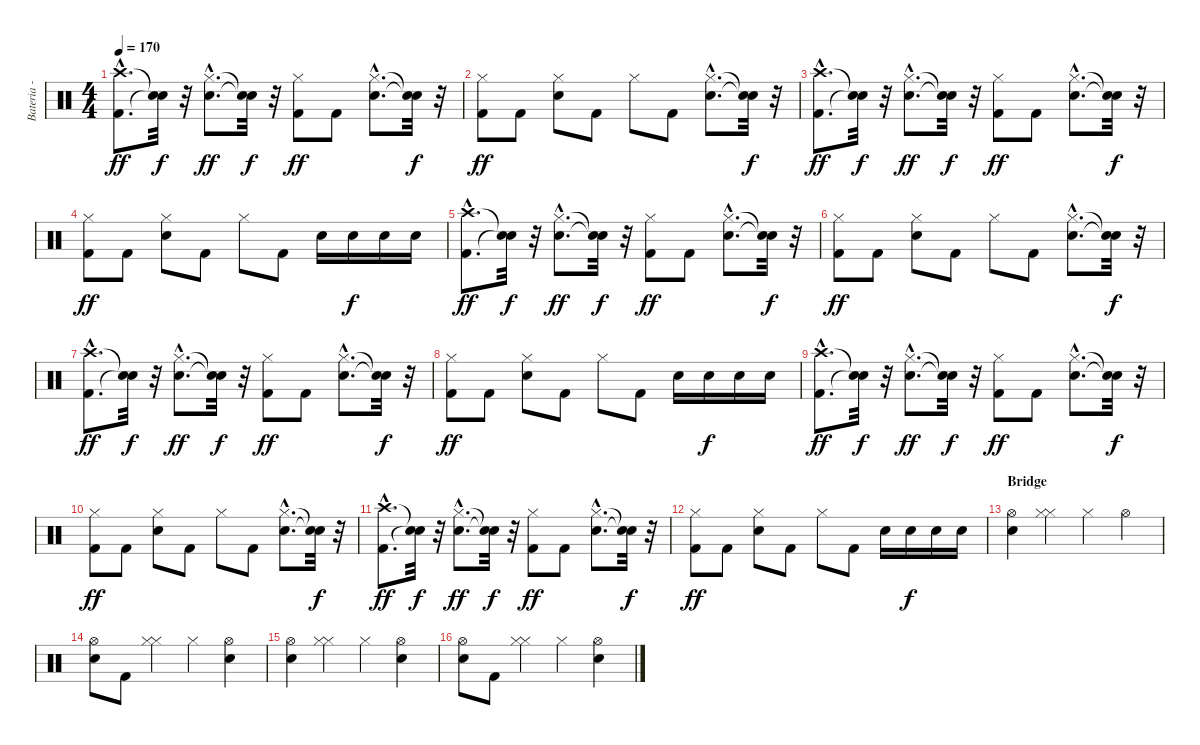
\track ("Bateria - Larzon" "Bateria - ") {instrument percussion}
\staff {score}
\articulation defaults
\ts (4 4)
\tempo 170
\clef neutral
\ks c
("Kick (hit) 2"{hac} "Crash high (hit)"{hac}).8{d dy ff} ("Snare (hit)"{t} "Snare (hit)"{t}).32{dy f} r.32 ("Electric Snare (hit)"{hac} "Hi-Hat (closed)"{hac}).8{d dy ff} ("Snare (hit)"{t} "Snare (hit)"{t}).32{dy f} r.32 ("Kick (hit) 2" "Hi-Hat (closed)").8{dy ff} "Kick (hit) 2".8 ("Electric Snare (hit)"{hac} "Hi-Hat (closed)"{hac}).8{d} ("Snare (hit)"{t} "Snare (hit)"{t}).32{dy f} r.32 |
("Kick (hit) 2" "Hi-Hat (closed)").8{dy ff} "Kick (hit) 2".8 ("Electric Snare (hit)" "Hi-Hat (closed)").8 "Kick (hit) 2".8 "Hi-Hat (closed)".8 "Kick (hit) 2".8 ("Electric Snare (hit)"{hac} "Hi-Hat (closed)"{hac}).8{d} ("Snare (hit)"{t} "Snare (hit)"{t}).32{dy f} r.32 |
("Kick (hit) 2"{hac} "Crash high (hit)"{hac}).8{d dy ff} ("Snare (hit)"{t} "Snare (hit)"{t}).32{dy f} r.32 ("Electric Snare (hit)"{hac} "Hi-Hat (closed)"{hac}).8{d dy ff} ("Snare (hit)"{t} "Snare (hit)"{t}).32{dy f} r.32 ("Kick (hit) 2" "Hi-Hat (closed)").8{dy ff} "Kick (hit) 2".8 ("Electric Snare (hit)"{hac} "Hi-Hat (closed)"{hac}).8{d} ("Snare (hit)"{t} "Snare (hit)"{t}).32{dy f} r.32 |
("Kick (hit) 2" "Hi-Hat (closed)").8{dy ff} "Kick (hit) 2".8 ("Electric Snare (hit)" "Hi-Hat (closed)").8 "Kick (hit) 2".8 "Hi-Hat (closed)".8 "Kick (hit) 2".8 "Snare (hit) 2".16 "Snare (hit) 2".16{dy f} "Snare (hit) 2".16 "Snare (hit) 2".16 |
("Kick (hit) 2"{hac} "Crash high (hit)"{hac}).8{d dy ff} ("Snare (hit)"{t} "Snare (hit)"{t}).32{dy f} r.32 ("Electric Snare (hit)"{hac} "Hi-Hat (closed)"{hac}).8{d dy ff} ("Snare (hit)"{t} "Snare (hit)"{t}).32{dy f} r.32 ("Kick (hit) 2" "Hi-Hat (closed)").8{dy ff} "Kick (hit) 2".8 ("Electric Snare (hit)"{hac} "Hi-Hat (closed)"{hac}).8{d} ("Snare (hit)"{t} "Snare (hit)"{t}).32{dy f} r.32 |
("Kick (hit) 2" "Hi-Hat (closed)").8{dy ff} "Kick (hit) 2".8 ("Electric Snare (hit)" "Hi-Hat (closed)").8 "Kick (hit) 2".8 "Hi-Hat (closed)".8 "Kick (hit) 2".8 ("Electric Snare (hit)"{hac} "Hi-Hat (closed)"{hac}).8{d} ("Snare (hit)"{t} "Snare (hit)"{t}).32{dy f} r.32 |
("Kick (hit) 2"{hac} "Crash high (hit)"{hac}).8{d dy ff} ("Snare (hit)"{t} "Snare (hit)"{t}).32{dy f} r.32 ("Electric Snare (hit)"{hac} "Hi-Hat (closed)"{hac}).8{d dy ff} ("Snare (hit)"{t} "Snare (hit)"{t}).32{dy f} r.32 ("Kick (hit) 2" "Hi-Hat (closed)").8{dy ff} "Kick (hit) 2".8 ("Electric Snare (hit)"{hac} "Hi-Hat (closed)"{hac}).8{d} ("Snare (hit)"{t} "Snare (hit)"{t}).32{dy f} r.32 |
("Kick (hit) 2" "Hi-Hat (closed)").8{dy ff} "Kick (hit) 2".8 ("Electric Snare (hit)" "Hi-Hat (closed)").8 "Kick (hit) 2".8 "Hi-Hat (closed)".8 "Kick (hit) 2".8 "Electric Snare (hit)".16 "Electric Snare (hit)".16{dy f} "Electric Snare (hit)".16 "Electric Snare (hit)".16 |
("Kick (hit) 2"{hac} "Crash high (hit)"{hac}).8{d dy ff} ("Snare (hit)"{t} "Snare (hit)"{t}).32{dy f} r.32 ("Electric Snare (hit)"{hac} "Hi-Hat (closed)"{hac}).8{d dy ff} ("Snare (hit)"{t} "Snare (hit)"{t}).32{dy f} r.32 ("Kick (hit) 2" "Hi-Hat (closed)").8{dy ff} "Kick (hit) 2".8 ("Electric Snare (hit)"{hac} "Hi-Hat (closed)"{hac}).8{d} ("Snare (hit)"{t} "Snare (hit)"{t}).32{dy f} r.32 |
("Kick (hit) 2" "Hi-Hat (closed)").8{dy ff} "Kick (hit) 2".8 ("Electric Snare (hit)" "Hi-Hat (closed)").8 "Kick (hit) 2".8 "Hi-Hat (closed)".8 "Kick (hit) 2".8 ("Electric Snare (hit)"{hac} "Hi-Hat (closed)"{hac}).8{d} ("Snare (hit)"{t} "Snare (hit)"{t}).32{dy f} r.32 |
("Kick (hit) 2"{hac} "Crash high (hit)"{hac}).8{d dy ff} ("Snare (hit)"{t} "Snare (hit)"{t}).32{dy f} r.32 ("Electric Snare (hit)"{hac} "Hi-Hat (closed)"{hac}).8{d dy ff} ("Snare (hit)"{t} "Snare (hit)"{t}).32{dy f} r.32 ("Kick (hit) 2" "Hi-Hat (closed)").8{dy ff} "Kick (hit) 2".8 ("Electric Snare (hit)"{hac} "Hi-Hat (closed)"{hac}).8{d} ("Snare (hit)"{t} "Snare (hit)"{t}).32{dy f} r.32 |
("Kick (hit) 2" "Hi-Hat (closed)").8{dy ff} "Kick (hit) 2".8 ("Electric Snare (hit)" "Hi-Hat (closed)").8 "Kick (hit) 2".8 "Hi-Hat (closed)".8 "Kick (hit) 2".8 "Snare (hit) 2".16 "Snare (hit) 2".16{dy f} "Snare (hit) 2".16 "Snare (hit) 2".16 |
\section ("" "Bridge")
("Hi-Hat (open)" "Electric Snare (hit)").4 ("Hi-Hat (closed)" "Hi-Hat (closed)").4 "Hi-Hat (closed)".4 "Hi-Hat (open)".4 |
("Hi-Hat (open)" "Electric Snare (hit)").8 "Kick (hit) 2".8 ("Hi-Hat (closed)" "Hi-Hat (closed)").4 "Hi-Hat (closed)".4 ("Hi-Hat (open)" "Electric Snare (hit)").4 |
("Hi-Hat (open)" "Electric Snare (hit)").4 ("Hi-Hat (closed)" "Hi-Hat (closed)").4 "Hi-Hat (closed)".4 ("Hi-Hat (open)" "Electric Snare (hit)").4 |
("Hi-Hat (open)" "Electric Snare (hit)").8 "Kick (hit) 2".8 ("Hi-Hat (closed)" "Hi-Hat (closed)").4 "Hi-Hat (closed)".4 ("Hi-Hat (open)" "Electric Snare (hit)").4
